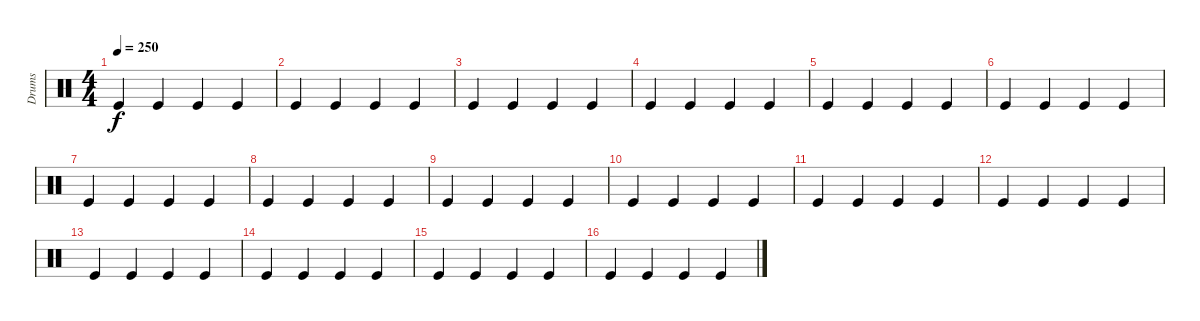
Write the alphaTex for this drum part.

\track ("Drums" "Drums") {instrument percussion}
\staff {score}
\articulation defaults
\ts (4 4)
\tempo 250
\clef neutral
\ks c "Kick (hit)".4{dy f} "Kick (hit)".4 "Kick (hit)".4 "Kick (hit)".4
|
"Kick (hit)".4 "Kick (hit)".4 "Kick (hit)".4 "Kick (hit)".4 |
"Kick (hit)".4 "Kick (hit)".4 "Kick (hit)".4 "Kick (hit)".4 |
"Kick (hit)".4 "Kick (hit)".4 "Kick (hit)".4 "Kick (hit)".4 |
"Kick (hit)".4 "Kick (hit)".4 "Kick (hit)".4 "Kick (hit)".4 |
"Kick (hit)".4 "Kick (hit)".4 "Kick (hit)".4 "Kick (hit)".4 |
"Kick (hit)".4 "Kick (hit)".4 "Kick (hit)".4 "Kick (hit)".4 |
"Kick (hit)".4 "Kick (hit)".4 "Kick (hit)".4 "Kick (hit)".4 |
"Kick (hit)".4 "Kick (hit)".4 "Kick (hit)".4 "Kick (hit)".4 |
"Kick (hit)".4 "Kick (hit)".4 "Kick (hit)".4 "Kick (hit)".4 |
"Kick (hit)".4 "Kick (hit)".4 "Kick (hit)".4 "Kick (hit)".4 |
"Kick (hit)".4 "Kick (hit)".4 "Kick (hit)".4 "Kick (hit)".4 |
"Kick (hit)".4 "Kick (hit)".4 "Kick (hit)".4 "Kick (hit)".4 |
"Kick (hit)".4 "Kick (hit)".4 "Kick (hit)".4 "Kick (hit)".4 |
"Kick (hit)".4 "Kick (hit)".4 "Kick (hit)".4 "Kick (hit)".4 |
"Kick (hit)".4 "Kick (hit)".4 "Kick (hit)".4 "Kick (hit)".4
